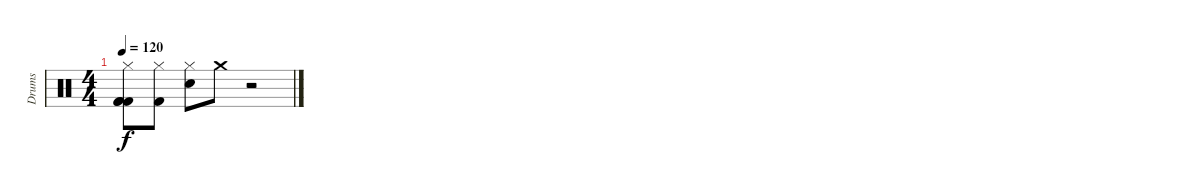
\track ("Drums" "Drums") {instrument percussion}
\staff {score}
\articulation defaults
\ts (4 4)
\tempo 120
\clef neutral
\ks c
("Hi-Hat (closed)" "Kick (hit) 2" "Kick (hit) 2" "Kick (hit) 2").8{dy f} ("Hi-Hat (closed)" "Kick (hit) 2").8 ("Hi-Hat (closed)" "Snare (hit) 2").8 "Crash medium (hit)".8 r.2
